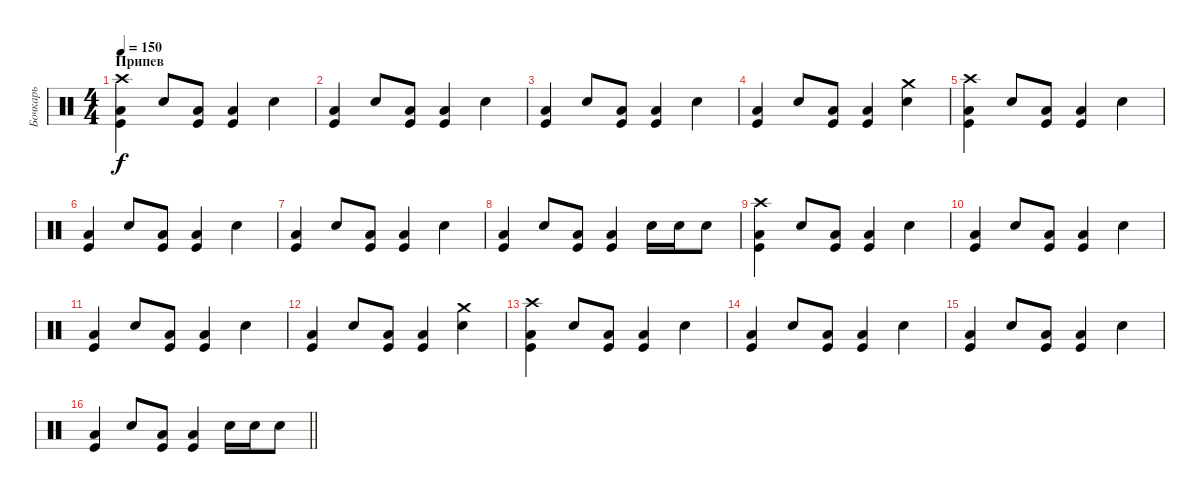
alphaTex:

\track ("Бочкарь" "Бочкарь") {instrument percussion}
\staff {score}
\articulation defaults
\ts (4 4)
\section ("" "Припев")
\tempo 150
\clef neutral
\ks c
("Crash high (hit)" "Low Tom (hit)" "Kick (hit)").4{dy f} "Electric Snare (hit)".8 ("Low Tom (hit)" "Kick (hit)").8 ("Low Tom (hit)" "Kick (hit)").4 "Electric Snare (hit)".4 |
("Low Tom (hit)" "Kick (hit)").4 "Electric Snare (hit)".8 ("Low Tom (hit)" "Kick (hit)").8 ("Low Tom (hit)" "Kick (hit)").4 "Electric Snare (hit)".4 |
("Low Tom (hit)" "Kick (hit)").4 "Electric Snare (hit)".8 ("Low Tom (hit)" "Kick (hit)").8 ("Low Tom (hit)" "Kick (hit)").4 "Electric Snare (hit)".4 |
("Low Tom (hit)" "Kick (hit)").4 "Electric Snare (hit)".8 ("Low Tom (hit)" "Kick (hit)").8 ("Low Tom (hit)" "Kick (hit)").4 ("Crash medium (hit)" "Electric Snare (hit)").4 |
("Crash high (hit)" "Low Tom (hit)" "Kick (hit)").4 "Electric Snare (hit)".8 ("Low Tom (hit)" "Kick (hit)").8 ("Low Tom (hit)" "Kick (hit)").4 "Electric Snare (hit)".4 |
("Low Tom (hit)" "Kick (hit)").4 "Electric Snare (hit)".8 ("Low Tom (hit)" "Kick (hit)").8 ("Low Tom (hit)" "Kick (hit)").4 "Electric Snare (hit)".4 |
("Low Tom (hit)" "Kick (hit)").4 "Electric Snare (hit)".8 ("Low Tom (hit)" "Kick (hit)").8 ("Low Tom (hit)" "Kick (hit)").4 "Electric Snare (hit)".4 |
("Low Tom (hit)" "Kick (hit)").4 "Electric Snare (hit)".8 ("Low Tom (hit)" "Kick (hit)").8 ("Low Tom (hit)" "Kick (hit)").4 "Snare (hit) 2".16 "Snare (hit) 2".16 "Electric Snare (hit)".8 |
("Crash high (hit)" "Low Tom (hit)" "Kick (hit)").4 "Electric Snare (hit)".8 ("Low Tom (hit)" "Kick (hit)").8 ("Low Tom (hit)" "Kick (hit)").4 "Electric Snare (hit)".4 |
("Low Tom (hit)" "Kick (hit)").4 "Electric Snare (hit)".8 ("Low Tom (hit)" "Kick (hit)").8 ("Low Tom (hit)" "Kick (hit)").4 "Electric Snare (hit)".4 |
("Low Tom (hit)" "Kick (hit)").4 "Electric Snare (hit)".8 ("Low Tom (hit)" "Kick (hit)").8 ("Low Tom (hit)" "Kick (hit)").4 "Electric Snare (hit)".4 |
("Low Tom (hit)" "Kick (hit)").4 "Electric Snare (hit)".8 ("Low Tom (hit)" "Kick (hit)").8 ("Low Tom (hit)" "Kick (hit)").4 ("Crash medium (hit)" "Electric Snare (hit)").4 |
("Crash high (hit)" "Low Tom (hit)" "Kick (hit)").4 "Electric Snare (hit)".8 ("Low Tom (hit)" "Kick (hit)").8 ("Low Tom (hit)" "Kick (hit)").4 "Electric Snare (hit)".4 |
("Low Tom (hit)" "Kick (hit)").4 "Electric Snare (hit)".8 ("Low Tom (hit)" "Kick (hit)").8 ("Low Tom (hit)" "Kick (hit)").4 "Electric Snare (hit)".4 |
("Low Tom (hit)" "Kick (hit)").4 "Electric Snare (hit)".8 ("Low Tom (hit)" "Kick (hit)").8 ("Low Tom (hit)" "Kick (hit)").4 "Electric Snare (hit)".4 |
\barLineRight lightlight
("Low Tom (hit)" "Kick (hit)").4 "Electric Snare (hit)".8 ("Low Tom (hit)" "Kick (hit)").8 ("Low Tom (hit)" "Kick (hit)").4 "Snare (hit) 2".16 "Snare (hit) 2".16 "Electric Snare (hit)".8
